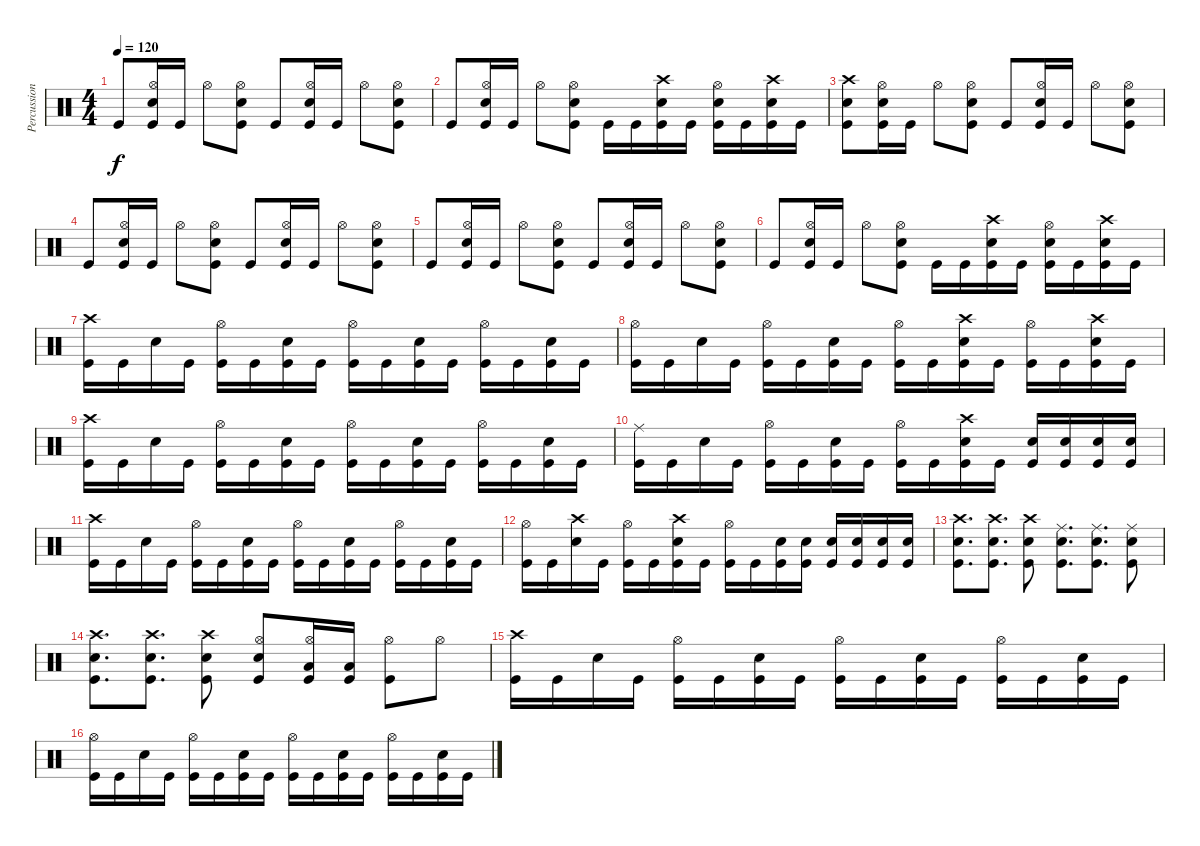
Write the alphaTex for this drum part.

\track ("Percussion" "Percussion") {instrument percussion}
\staff {score}
\articulation defaults
\ts (4 4)
\tempo 120
\clef neutral
\ks c "Kick (hit)".8{dy f}
("Kick (hit)" "Hi-Hat (open)" "Snare (hit) 2").16 "Kick (hit)".16 "Hi-Hat (open)".8 ("Kick (hit)" "Hi-Hat (open)" "Snare (hit) 2").8 "Kick (hit)".8 ("Kick (hit)" "Hi-Hat (open)" "Snare (hit) 2").16 "Kick (hit)".16 "Hi-Hat (open)".8 ("Kick (hit)" "Hi-Hat (open)" "Snare (hit) 2").8 |
"Kick (hit)".8 ("Kick (hit)" "Hi-Hat (open)" "Snare (hit) 2").16 "Kick (hit)".16 "Hi-Hat (open)".8 ("Kick (hit)" "Hi-Hat (open)" "Snare (hit) 2").8 "Kick (hit)".16 "Kick (hit)".16 ("Kick (hit)" "Crash high (hit)" "Snare (hit) 2").16 "Kick (hit)".16 ("Snare (hit) 2" "Hi-Hat (open)" "Kick (hit)").16 "Kick (hit)".16 ("Kick (hit)" "Crash high (hit)" "Snare (hit) 2").16 "Kick (hit)".16 |
("Kick (hit)" "Crash high (hit)" "Snare (hit) 2").8 ("Kick (hit)" "Hi-Hat (open)" "Snare (hit) 2").16 "Kick (hit)".16 "Hi-Hat (open)".8 ("Kick (hit)" "Hi-Hat (open)" "Snare (hit) 2").8 "Kick (hit)".8 ("Kick (hit)" "Hi-Hat (open)" "Snare (hit) 2").16 "Kick (hit)".16 "Hi-Hat (open)".8 ("Kick (hit)" "Hi-Hat (open)" "Snare (hit) 2").8 |
"Kick (hit)".8 ("Kick (hit)" "Hi-Hat (open)" "Snare (hit) 2").16 "Kick (hit)".16 "Hi-Hat (open)".8 ("Kick (hit)" "Hi-Hat (open)" "Snare (hit) 2").8 "Kick (hit)".8 ("Kick (hit)" "Hi-Hat (open)" "Snare (hit) 2").16 "Kick (hit)".16 "Hi-Hat (open)".8 ("Kick (hit)" "Hi-Hat (open)" "Snare (hit) 2").8 |
"Kick (hit)".8 ("Kick (hit)" "Hi-Hat (open)" "Snare (hit) 2").16 "Kick (hit)".16 "Hi-Hat (open)".8 ("Kick (hit)" "Hi-Hat (open)" "Snare (hit) 2").8 "Kick (hit)".8 ("Kick (hit)" "Hi-Hat (open)" "Snare (hit) 2").16 "Kick (hit)".16 "Hi-Hat (open)".8 ("Kick (hit)" "Hi-Hat (open)" "Snare (hit) 2").8 |
"Kick (hit)".8 ("Kick (hit)" "Hi-Hat (open)" "Snare (hit) 2").16 "Kick (hit)".16 "Hi-Hat (open)".8 ("Kick (hit)" "Hi-Hat (open)" "Snare (hit) 2").8 "Kick (hit)".16 "Kick (hit)".16 ("Kick (hit)" "Crash high (hit)" "Snare (hit) 2").16 "Kick (hit)".16 ("Snare (hit) 2" "Hi-Hat (open)" "Kick (hit)").16 "Kick (hit)".16 ("Kick (hit)" "Crash high (hit)" "Snare (hit) 2").16 "Kick (hit)".16 |
("Crash high (hit)" "Kick (hit)").16 "Kick (hit)".16 "Snare (hit) 2".16 "Kick (hit)".16 ("Kick (hit)" "Hi-Hat (open)").16 "Kick (hit)".16 ("Kick (hit)" "Snare (hit) 2").16 "Kick (hit)".16 ("Kick (hit)" "Hi-Hat (open)").16 "Kick (hit)".16 ("Kick (hit)" "Snare (hit) 2").16 "Kick (hit)".16 ("Kick (hit)" "Hi-Hat (open)").16 "Kick (hit)".16 ("Kick (hit)" "Snare (hit) 2").16 "Kick (hit)".16 |
("Hi-Hat (open)" "Kick (hit)").16 "Kick (hit)".16 "Snare (hit) 2".16 "Kick (hit)".16 ("Kick (hit)" "Hi-Hat (open)").16 "Kick (hit)".16 ("Kick (hit)" "Snare (hit) 2").16 "Kick (hit)".16 ("Kick (hit)" "Hi-Hat (open)").16 "Kick (hit)".16 ("Kick (hit)" "Snare (hit) 2" "Crash high (hit)").16 "Kick (hit)".16 ("Kick (hit)" "Hi-Hat (open)").16 "Kick (hit)".16 ("Kick (hit)" "Snare (hit) 2" "Crash high (hit)").16 "Kick (hit)".16 |
("Crash high (hit)" "Kick (hit)").16 "Kick (hit)".16 "Snare (hit) 2".16 "Kick (hit)".16 ("Kick (hit)" "Hi-Hat (open)").16 "Kick (hit)".16 ("Kick (hit)" "Snare (hit) 2").16 "Kick (hit)".16 ("Kick (hit)" "Hi-Hat (open)").16 "Kick (hit)".16 ("Kick (hit)" "Snare (hit) 2").16 "Kick (hit)".16 ("Kick (hit)" "Hi-Hat (open)").16 "Kick (hit)".16 ("Kick (hit)" "Snare (hit) 2").16 "Kick (hit)".16 |
("Ride (middle)" "Kick (hit)").16 "Kick (hit)".16 "Snare (hit) 2".16 "Kick (hit)".16 ("Kick (hit)" "Hi-Hat (open)").16 "Kick (hit)".16 ("Kick (hit)" "Snare (hit) 2").16 "Kick (hit)".16 ("Kick (hit)" "Hi-Hat (open)").16 "Kick (hit)".16 ("Kick (hit)" "Snare (hit) 2" "Crash high (hit)").16 "Kick (hit)".16 ("Kick (hit)" "Snare (hit) 2").16 ("Kick (hit)" "Snare (hit) 2").16 ("Kick (hit)" "Snare (hit) 2").16 ("Kick (hit)" "Snare (hit) 2").16 |
("Crash high (hit)" "Kick (hit)").16 "Kick (hit)".16 "Snare (hit) 2".16 "Kick (hit)".16 ("Kick (hit)" "Hi-Hat (open)").16 "Kick (hit)".16 ("Kick (hit)" "Snare (hit) 2").16 "Kick (hit)".16 ("Kick (hit)" "Hi-Hat (open)").16 "Kick (hit)".16 ("Kick (hit)" "Snare (hit) 2").16 "Kick (hit)".16 ("Kick (hit)" "Hi-Hat (open)").16 "Kick (hit)".16 ("Kick (hit)" "Snare (hit) 2").16 "Kick (hit)".16 |
("Hi-Hat (open)" "Kick (hit)").16 "Kick (hit)".16 ("Snare (hit) 2" "Crash high (hit)").16 "Kick (hit)".16 ("Kick (hit)" "Hi-Hat (open)").16 "Kick (hit)".16 ("Kick (hit)" "Snare (hit) 2" "Crash high (hit)").16 "Kick (hit)".16 ("Kick (hit)" "Hi-Hat (open)").16 "Kick (hit)".16 ("Kick (hit)" "Snare (hit) 2").16 ("Kick (hit)" "Snare (hit) 2").16 ("Kick (hit)" "Snare (hit) 2").16 ("Kick (hit)" "Snare (hit) 2").16 ("Kick (hit)" "Snare (hit) 2").16 ("Kick (hit)" "Snare (hit) 2").16 |
("Snare (hit) 2" "Kick (hit)" "Crash high (hit)").8{d} ("Snare (hit) 2" "Kick (hit)" "Crash high (hit)").8{d} ("Crash high (hit)" "Kick (hit)" "Snare (hit) 2").8 ("Snare (hit) 2" "Kick (hit)" "Ride (middle)").8{d} ("Ride (middle)" "Kick (hit)" "Snare (hit) 2").8{d} ("Snare (hit) 2" "Kick (hit)" "Ride (middle)").8 |
("Snare (hit) 2" "Kick (hit)" "Crash high (hit)").8{d} ("Snare (hit) 2" "Kick (hit)" "Crash high (hit)").8{d} ("Crash high (hit)" "Kick (hit)" "Snare (hit) 2").8 ("Snare (hit) 2" "Kick (hit)" "Hi-Hat (open)").8 ("Kick (hit)" "Low Tom (hit)" "Hi-Hat (open)").16 ("Kick (hit)" "Low Tom (hit)").16 ("Kick (hit)" "Hi-Hat (open)").8 "Hi-Hat (open)".8 |
("Crash high (hit)" "Kick (hit)").16 "Kick (hit)".16 "Snare (hit) 2".16 "Kick (hit)".16 ("Kick (hit)" "Hi-Hat (open)").16 "Kick (hit)".16 ("Kick (hit)" "Snare (hit) 2").16 "Kick (hit)".16 ("Kick (hit)" "Hi-Hat (open)").16 "Kick (hit)".16 ("Kick (hit)" "Snare (hit) 2").16 "Kick (hit)".16 ("Kick (hit)" "Hi-Hat (open)").16 "Kick (hit)".16 ("Kick (hit)" "Snare (hit) 2").16 "Kick (hit)".16 |
("Hi-Hat (open)" "Kick (hit)").16 "Kick (hit)".16 "Snare (hit) 2".16 "Kick (hit)".16 ("Kick (hit)" "Hi-Hat (open)").16 "Kick (hit)".16 ("Kick (hit)" "Snare (hit) 2").16 "Kick (hit)".16 ("Kick (hit)" "Hi-Hat (open)").16 "Kick (hit)".16 ("Kick (hit)" "Snare (hit) 2").16 "Kick (hit)".16 ("Kick (hit)" "Hi-Hat (open)").16 "Kick (hit)".16 ("Kick (hit)" "Snare (hit) 2").16 "Kick (hit)".16
